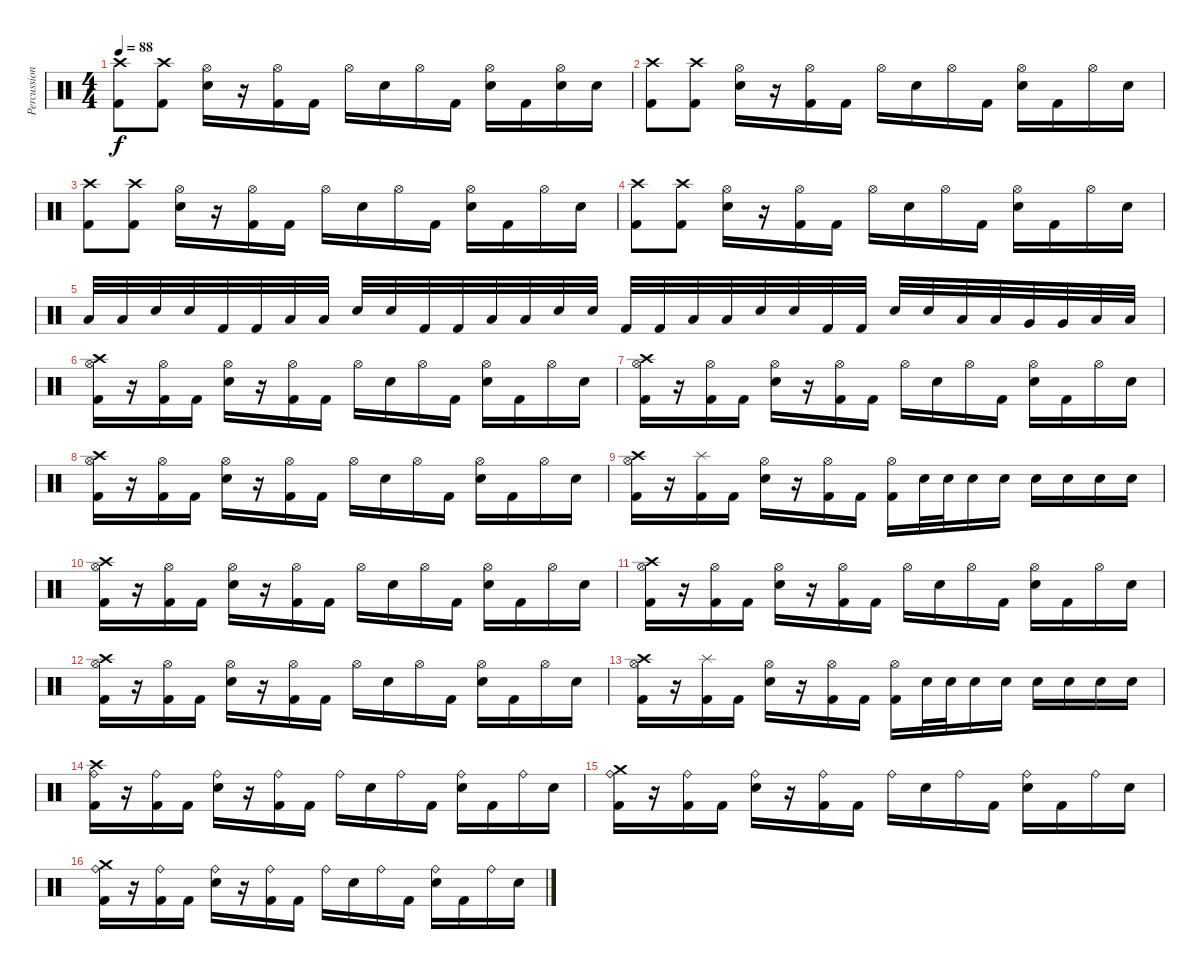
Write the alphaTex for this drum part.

\track ("Percussion" "Percussion") {instrument percussion}
\staff {score}
\articulation defaults
\ts (4 4)
\tempo 88
\clef neutral
\ks c
("Crash high (hit)" "Kick (hit) 2").8{dy f} ("Crash high (hit)" "Kick (hit) 2").8 ("Hi-Hat (open)" "Electric Snare (hit)").16 r.16 ("Hi-Hat (open)" "Kick (hit) 2").16 "Kick (hit) 2".16 "Hi-Hat (open)".16 "Electric Snare (hit)".16 "Hi-Hat (open)".16 "Kick (hit) 2".16 ("Hi-Hat (open)" "Electric Snare (hit)").16 "Kick (hit) 2".16 ("Hi-Hat (open)" "Electric Snare (hit)").16 "Electric Snare (hit)".16 |
("Crash high (hit)" "Kick (hit) 2").8 ("Crash high (hit)" "Kick (hit) 2").8 ("Hi-Hat (open)" "Electric Snare (hit)").16 r.16 ("Hi-Hat (open)" "Kick (hit) 2").16 "Kick (hit) 2".16 "Hi-Hat (open)".16 "Electric Snare (hit)".16 "Hi-Hat (open)".16 "Kick (hit) 2".16 ("Hi-Hat (open)" "Electric Snare (hit)").16 "Kick (hit) 2".16 "Hi-Hat (open)".16 "Electric Snare (hit)".16 |
("Crash high (hit)" "Kick (hit) 2").8 ("Crash high (hit)" "Kick (hit) 2").8 ("Hi-Hat (open)" "Electric Snare (hit)").16 r.16 ("Hi-Hat (open)" "Kick (hit) 2").16 "Kick (hit) 2".16 "Hi-Hat (open)".16 "Electric Snare (hit)".16 "Hi-Hat (open)".16 "Kick (hit) 2".16 ("Hi-Hat (open)" "Electric Snare (hit)").16 "Kick (hit) 2".16 "Hi-Hat (open)".16 "Electric Snare (hit)".16 |
("Crash high (hit)" "Kick (hit) 2").8 ("Crash high (hit)" "Kick (hit) 2").8 ("Hi-Hat (open)" "Electric Snare (hit)").16 r.16 ("Hi-Hat (open)" "Kick (hit) 2").16 "Kick (hit) 2".16 "Hi-Hat (open)".16 "Electric Snare (hit)".16 "Hi-Hat (open)".16 "Kick (hit) 2".16 ("Hi-Hat (open)" "Electric Snare (hit)").16 "Kick (hit) 2".16 "Hi-Hat (open)".16 "Electric Snare (hit)".16 |
"Low Tom (hit)".32 "Low Tom (hit)".32 "Electric Snare (hit)".32 "Electric Snare (hit)".32 "Kick (hit) 2".32 "Kick (hit) 2".32 "Low Tom (hit)".32 "Low Tom (hit)".32 "Electric Snare (hit)".32 "Electric Snare (hit)".32 "Kick (hit) 2".32 "Kick (hit) 2".32 "Low Tom (hit)".32 "Low Tom (hit)".32 "Electric Snare (hit)".32 "Electric Snare (hit)".32 "Kick (hit) 2".32 "Kick (hit) 2".32 "Low Tom (hit)".32 "Low Tom (hit)".32 "Electric Snare (hit)".32 "Electric Snare (hit)".32 "Kick (hit) 2".32 "Kick (hit) 2".32 "Electric Snare (hit)".32 "Electric Snare (hit)".32 "Low Tom (hit)".32 "Low Tom (hit)".32 "Very Low Tom (hit)".32 "Very Low Tom (hit)".32 "Low Floor Tom (hit)".32 "Low Floor Tom (hit)".32 |
("Crash high (hit)" "Hi-Hat (open)" "Kick (hit) 2").16 r.16 ("Hi-Hat (open)" "Kick (hit) 2").16 "Kick (hit) 2".16 ("Hi-Hat (open)" "Electric Snare (hit)").16 r.16 ("Hi-Hat (open)" "Kick (hit) 2").16 "Kick (hit) 2".16 "Hi-Hat (open)".16 "Electric Snare (hit)".16 "Hi-Hat (open)".16 "Kick (hit) 2".16 ("Hi-Hat (open)" "Electric Snare (hit)").16 "Kick (hit) 2".16 "Hi-Hat (open)".16 "Electric Snare (hit)".16 |
("Crash high (hit)" "Hi-Hat (open)" "Kick (hit) 2").16 r.16 ("Hi-Hat (open)" "Kick (hit) 2").16 "Kick (hit) 2".16 ("Hi-Hat (open)" "Electric Snare (hit)").16 r.16 ("Hi-Hat (open)" "Kick (hit) 2").16 "Kick (hit) 2".16 "Hi-Hat (open)".16 "Electric Snare (hit)".16 "Hi-Hat (open)".16 "Kick (hit) 2".16 ("Hi-Hat (open)" "Electric Snare (hit)").16 "Kick (hit) 2".16 "Hi-Hat (open)".16 "Electric Snare (hit)".16 |
("Crash high (hit)" "Hi-Hat (open)" "Kick (hit) 2").16 r.16 ("Hi-Hat (open)" "Kick (hit) 2").16 "Kick (hit) 2".16 ("Hi-Hat (open)" "Electric Snare (hit)").16 r.16 ("Hi-Hat (open)" "Kick (hit) 2").16 "Kick (hit) 2".16 "Hi-Hat (open)".16 "Electric Snare (hit)".16 "Hi-Hat (open)".16 "Kick (hit) 2".16 ("Hi-Hat (open)" "Electric Snare (hit)").16 "Kick (hit) 2".16 "Hi-Hat (open)".16 "Electric Snare (hit)".16 |
("Crash high (hit)" "Hi-Hat (open)" "Kick (hit) 2").16 r.16 ("Splash (hit)" "Kick (hit) 2").16 "Kick (hit) 2".16 ("Hi-Hat (open)" "Electric Snare (hit)").16 r.16 ("Hi-Hat (open)" "Kick (hit) 2").16 "Kick (hit) 2".16 ("Hi-Hat (open)" "Kick (hit) 2").16 "Electric Snare (hit)".32 "Electric Snare (hit)".32 "Electric Snare (hit)".16 "Electric Snare (hit)".16 "Electric Snare (hit)".16 "Electric Snare (hit)".16 "Electric Snare (hit)".16 "Electric Snare (hit)".16 |
("Crash high (hit)" "Hi-Hat (open)" "Kick (hit) 2").16 r.16 ("Hi-Hat (open)" "Kick (hit) 2").16 "Kick (hit) 2".16 ("Hi-Hat (open)" "Electric Snare (hit)").16 r.16 ("Hi-Hat (open)" "Kick (hit) 2").16 "Kick (hit) 2".16 "Hi-Hat (open)".16 "Electric Snare (hit)".16 "Hi-Hat (open)".16 "Kick (hit) 2".16 ("Hi-Hat (open)" "Electric Snare (hit)").16 "Kick (hit) 2".16 "Hi-Hat (open)".16 "Electric Snare (hit)".16 |
("Crash high (hit)" "Hi-Hat (open)" "Kick (hit) 2").16 r.16 ("Hi-Hat (open)" "Kick (hit) 2").16 "Kick (hit) 2".16 ("Hi-Hat (open)" "Electric Snare (hit)").16 r.16 ("Hi-Hat (open)" "Kick (hit) 2").16 "Kick (hit) 2".16 "Hi-Hat (open)".16 "Electric Snare (hit)".16 "Hi-Hat (open)".16 "Kick (hit) 2".16 ("Hi-Hat (open)" "Electric Snare (hit)").16 "Kick (hit) 2".16 "Hi-Hat (open)".16 "Electric Snare (hit)".16 |
("Crash high (hit)" "Hi-Hat (open)" "Kick (hit) 2").16 r.16 ("Hi-Hat (open)" "Kick (hit) 2").16 "Kick (hit) 2".16 ("Hi-Hat (open)" "Electric Snare (hit)").16 r.16 ("Hi-Hat (open)" "Kick (hit) 2").16 "Kick (hit) 2".16 "Hi-Hat (open)".16 "Electric Snare (hit)".16 "Hi-Hat (open)".16 "Kick (hit) 2".16 ("Hi-Hat (open)" "Electric Snare (hit)").16 "Kick (hit) 2".16 "Hi-Hat (open)".16 "Electric Snare (hit)".16 |
("Crash high (hit)" "Hi-Hat (open)" "Kick (hit) 2").16 r.16 ("Splash (hit)" "Kick (hit) 2").16 "Kick (hit) 2".16 ("Hi-Hat (open)" "Electric Snare (hit)").16 r.16 ("Hi-Hat (open)" "Kick (hit) 2").16 "Kick (hit) 2".16 ("Hi-Hat (open)" "Kick (hit) 2").16 "Electric Snare (hit)".32 "Electric Snare (hit)".32 "Electric Snare (hit)".16 "Electric Snare (hit)".16 "Electric Snare (hit)".16 "Electric Snare (hit)".16 "Electric Snare (hit)".16 "Electric Snare (hit)".16 |
("Crash high (hit)" "Ride (bell)" "Kick (hit) 2").16 r.16 ("Ride (bell)" "Kick (hit) 2").16 "Kick (hit) 2".16 ("Ride (bell)" "Electric Snare (hit)").16 r.16 ("Ride (bell)" "Kick (hit) 2").16 "Kick (hit) 2".16 "Ride (bell)".16 "Electric Snare (hit)".16 "Ride (bell)".16 "Kick (hit) 2".16 ("Ride (bell)" "Electric Snare (hit)").16 "Kick (hit) 2".16 "Ride (bell)".16 "Electric Snare (hit)".16 |
("Crash medium (hit)" "Ride (bell)" "Kick (hit) 2").16 r.16 ("Ride (bell)" "Kick (hit) 2").16 "Kick (hit) 2".16 ("Ride (bell)" "Electric Snare (hit)").16 r.16 ("Ride (bell)" "Kick (hit) 2").16 "Kick (hit) 2".16 "Ride (bell)".16 "Electric Snare (hit)".16 "Ride (bell)".16 "Kick (hit) 2".16 ("Ride (bell)" "Electric Snare (hit)").16 "Kick (hit) 2".16 "Ride (bell)".16 "Electric Snare (hit)".16 |
("Crash medium (hit)" "Ride (bell)" "Kick (hit) 2").16 r.16 ("Ride (bell)" "Kick (hit) 2").16 "Kick (hit) 2".16 ("Ride (bell)" "Electric Snare (hit)").16 r.16 ("Ride (bell)" "Kick (hit) 2").16 "Kick (hit) 2".16 "Ride (bell)".16 "Electric Snare (hit)".16 "Ride (bell)".16 "Kick (hit) 2".16 ("Ride (bell)" "Electric Snare (hit)").16 "Kick (hit) 2".16 "Ride (bell)".16 "Electric Snare (hit)".16
